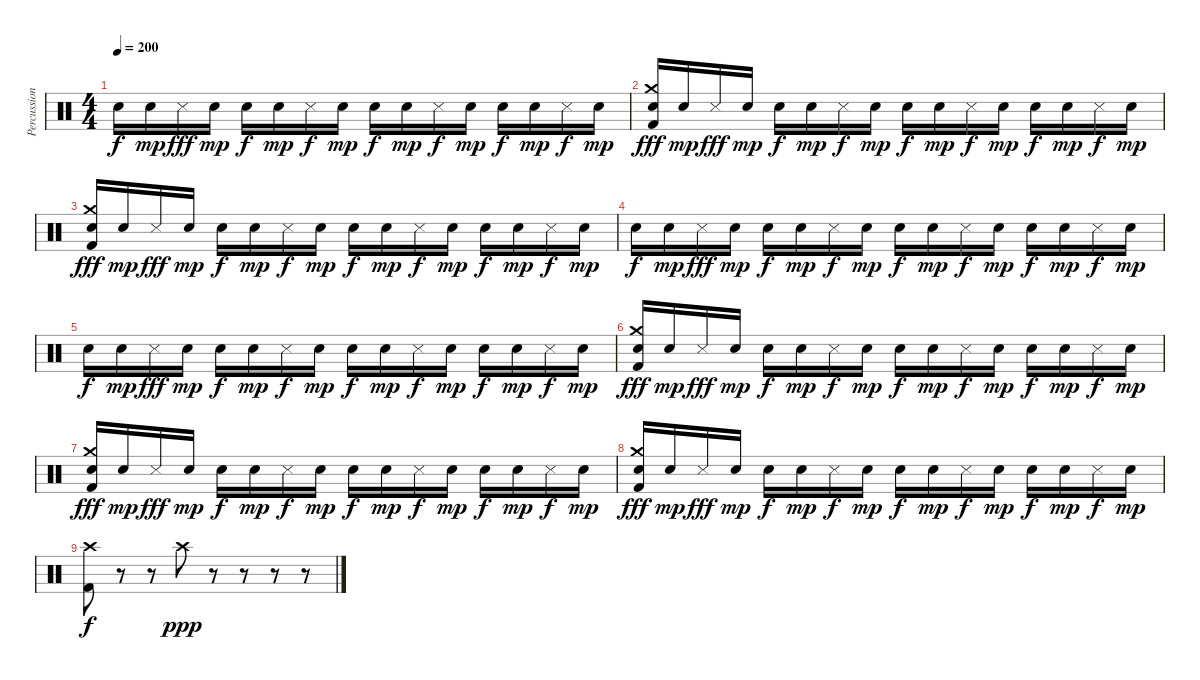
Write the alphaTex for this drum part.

\track ("Percussion" "Percussion") {instrument percussion}
\staff {score}
\articulation defaults
\ts (4 4)
\tempo 200
\clef neutral
\ks c "Snare (hit) 2".16{dy f} "Snare (hit) 2".16{dy mp} "Snare (side stick) 3".16{dy fff} "Snare (hit) 2".16{dy mp} "Snare (hit) 2".16{dy f} "Snare (hit) 2".16{dy mp} "Snare (side stick) 3".16{dy f} "Snare (hit) 2".16{dy mp} "Snare (hit) 2".16{dy f} "Snare (hit) 2".16{dy mp} "Snare (side stick) 3".16{dy f} "Snare (hit) 2".16{dy mp} "Snare (hit) 2".16{dy f} "Snare (hit) 2".16{dy mp} "Snare (side stick) 3".16{dy f} "Snare (hit) 2".16{dy mp}
|
("Snare (hit) 2" "Crash medium (hit)" "Kick (hit) 2").16{dy fff} "Snare (hit) 2".16{dy mp} "Snare (side stick) 3".16{dy fff} "Snare (hit) 2".16{dy mp} "Snare (hit) 2".16{dy f} "Snare (hit) 2".16{dy mp} "Snare (side stick) 3".16{dy f} "Snare (hit) 2".16{dy mp} "Snare (hit) 2".16{dy f} "Snare (hit) 2".16{dy mp} "Snare (side stick) 3".16{dy f} "Snare (hit) 2".16{dy mp} "Snare (hit) 2".16{dy f} "Snare (hit) 2".16{dy mp} "Snare (side stick) 3".16{dy f} "Snare (hit) 2".16{dy mp} |
("Crash medium (hit)" "Snare (hit) 2" "Kick (hit) 2").16{dy fff} "Snare (hit) 2".16{dy mp} "Snare (side stick) 3".16{dy fff} "Snare (hit) 2".16{dy mp} "Snare (hit) 2".16{dy f} "Snare (hit) 2".16{dy mp} "Snare (side stick) 3".16{dy f} "Snare (hit) 2".16{dy mp} "Snare (hit) 2".16{dy f} "Snare (hit) 2".16{dy mp} "Snare (side stick) 3".16{dy f} "Snare (hit) 2".16{dy mp} "Snare (hit) 2".16{dy f} "Snare (hit) 2".16{dy mp} "Snare (side stick) 3".16{dy f} "Snare (hit) 2".16{dy mp} |
"Snare (hit) 2".16{dy f} "Snare (hit) 2".16{dy mp} "Snare (side stick) 3".16{dy fff} "Snare (hit) 2".16{dy mp} "Snare (hit) 2".16{dy f} "Snare (hit) 2".16{dy mp} "Snare (side stick) 3".16{dy f} "Snare (hit) 2".16{dy mp} "Snare (hit) 2".16{dy f} "Snare (hit) 2".16{dy mp} "Snare (side stick) 3".16{dy f} "Snare (hit) 2".16{dy mp} "Snare (hit) 2".16{dy f} "Snare (hit) 2".16{dy mp} "Snare (side stick) 3".16{dy f} "Snare (hit) 2".16{dy mp} |
"Snare (hit) 2".16{dy f} "Snare (hit) 2".16{dy mp} "Snare (side stick) 3".16{dy fff} "Snare (hit) 2".16{dy mp} "Snare (hit) 2".16{dy f} "Snare (hit) 2".16{dy mp} "Snare (side stick) 3".16{dy f} "Snare (hit) 2".16{dy mp} "Snare (hit) 2".16{dy f} "Snare (hit) 2".16{dy mp} "Snare (side stick) 3".16{dy f} "Snare (hit) 2".16{dy mp} "Snare (hit) 2".16{dy f} "Snare (hit) 2".16{dy mp} "Snare (side stick) 3".16{dy f} "Snare (hit) 2".16{dy mp} |
("Snare (hit) 2" "Crash medium (hit)" "Kick (hit) 2").16{dy fff} "Snare (hit) 2".16{dy mp} "Snare (side stick) 3".16{dy fff} "Snare (hit) 2".16{dy mp} "Snare (hit) 2".16{dy f} "Snare (hit) 2".16{dy mp} "Snare (side stick) 3".16{dy f} "Snare (hit) 2".16{dy mp} "Snare (hit) 2".16{dy f} "Snare (hit) 2".16{dy mp} "Snare (side stick) 3".16{dy f} "Snare (hit) 2".16{dy mp} "Snare (hit) 2".16{dy f} "Snare (hit) 2".16{dy mp} "Snare (side stick) 3".16{dy f} "Snare (hit) 2".16{dy mp} |
("Snare (hit) 2" "Crash medium (hit)" "Kick (hit) 2").16{dy fff} "Snare (hit) 2".16{dy mp} "Snare (side stick) 3".16{dy fff} "Snare (hit) 2".16{dy mp} "Snare (hit) 2".16{dy f} "Snare (hit) 2".16{dy mp} "Snare (side stick) 3".16{dy f} "Snare (hit) 2".16{dy mp} "Snare (hit) 2".16{dy f} "Snare (hit) 2".16{dy mp} "Snare (side stick) 3".16{dy f} "Snare (hit) 2".16{dy mp} "Snare (hit) 2".16{dy f} "Snare (hit) 2".16{dy mp} "Snare (side stick) 3".16{dy f} "Snare (hit) 2".16{dy mp} |
("Snare (hit) 2" "Crash medium (hit)" "Kick (hit) 2").16{dy fff} "Snare (hit) 2".16{dy mp} "Snare (side stick) 3".16{dy fff} "Snare (hit) 2".16{dy mp} "Snare (hit) 2".16{dy f} "Snare (hit) 2".16{dy mp} "Snare (side stick) 3".16{dy f} "Snare (hit) 2".16{dy mp} "Snare (hit) 2".16{dy f} "Snare (hit) 2".16{dy mp} "Snare (side stick) 3".16{dy f} "Snare (hit) 2".16{dy mp} "Snare (hit) 2".16{dy f} "Snare (hit) 2".16{dy mp} "Snare (side stick) 3".16{dy f} "Snare (hit) 2".16{dy mp} |
("Crash high (hit)" "Kick (hit) 2").8{dy f} r.8 r.8 "Crash high (hit)".8{dy ppp} r.8 r.8 r.8 r.8
